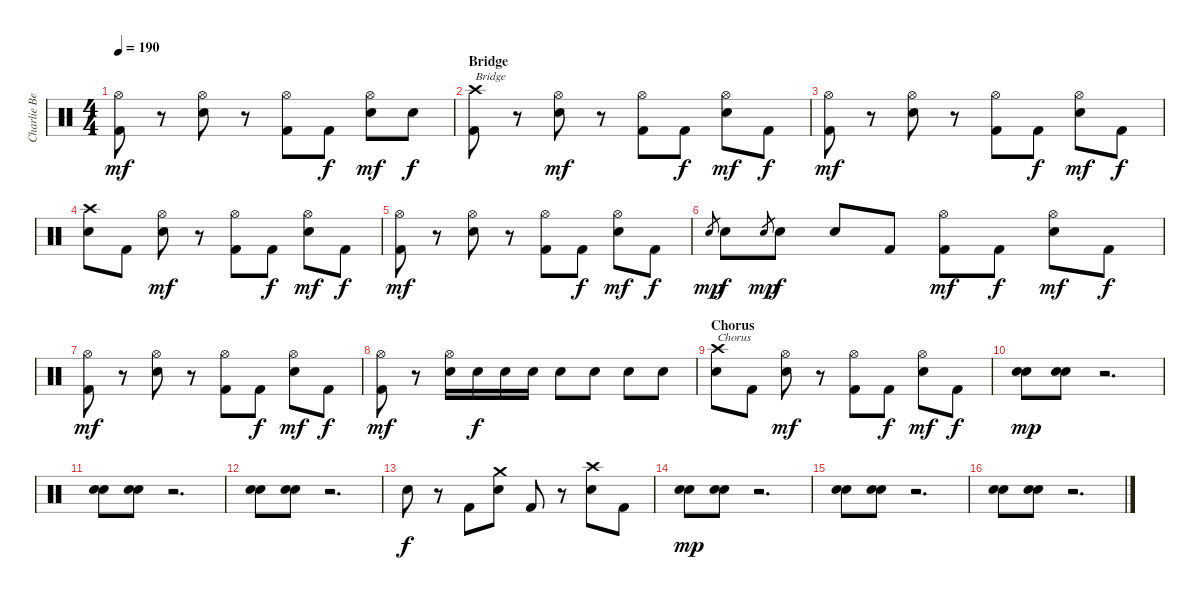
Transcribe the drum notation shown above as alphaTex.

\track ("Charlie Benante" "Charlie Be") {instrument percussion}
\staff {score}
\articulation defaults
\ts (4 4)
\tempo 190
\clef neutral
\ks c
("Hi-Hat (open)" "Kick (hit) 2").8{dy mf} r.8 ("Hi-Hat (open)" "Electric Snare (hit)").8 r.8 ("Hi-Hat (open)" "Kick (hit) 2").8 "Kick (hit) 2".8{dy f} ("Hi-Hat (open)" "Electric Snare (hit)").8{dy mf} "Snare (hit) 2".8{dy f} |
\section ("" "Bridge")
("Crash high (hit)" "Kick (hit) 2").8{txt "Bridge"} r.8 ("Hi-Hat (open)" "Electric Snare (hit)").8{dy mf} r.8 ("Hi-Hat (open)" "Kick (hit) 2").8 "Kick (hit) 2".8{dy f} ("Hi-Hat (open)" "Electric Snare (hit)").8{dy mf} "Kick (hit) 2".8{dy f} |
("Hi-Hat (open)" "Kick (hit) 2").8{dy mf} r.8 ("Hi-Hat (open)" "Electric Snare (hit)").8 r.8 ("Hi-Hat (open)" "Kick (hit) 2").8 "Kick (hit) 2".8{dy f} ("Hi-Hat (open)" "Electric Snare (hit)").8{dy mf} "Kick (hit) 2".8{dy f} |
("Crash high (hit)" "Electric Snare (hit)").8 "Kick (hit) 2".8 ("Hi-Hat (open)" "Electric Snare (hit)").8{dy mf} r.8 ("Hi-Hat (open)" "Kick (hit) 2").8 "Kick (hit) 2".8{dy f} ("Hi-Hat (open)" "Electric Snare (hit)").8{dy mf} "Kick (hit) 2".8{dy f} |
("Hi-Hat (open)" "Kick (hit) 2").8{dy mf} r.8 ("Hi-Hat (open)" "Electric Snare (hit)").8 r.8 ("Hi-Hat (open)" "Kick (hit) 2").8 "Kick (hit) 2".8{dy f} ("Hi-Hat (open)" "Electric Snare (hit)").8{dy mf} "Kick (hit) 2".8{dy f} |
"Snare (hit) 2".8{gr dy mp} "Electric Snare (hit)".8{dy f} "Snare (hit) 2".8{gr dy mp} "Electric Snare (hit)".8{dy f} "Electric Snare (hit)".8 "Kick (hit) 2".8 ("Hi-Hat (open)" "Kick (hit) 2").8{dy mf} "Kick (hit) 2".8{dy f} ("Hi-Hat (open)" "Electric Snare (hit)").8{dy mf} "Kick (hit) 2".8{dy f} |
("Hi-Hat (open)" "Kick (hit) 2").8{dy mf} r.8 ("Hi-Hat (open)" "Electric Snare (hit)").8 r.8 ("Hi-Hat (open)" "Kick (hit) 2").8 "Kick (hit) 2".8{dy f} ("Hi-Hat (open)" "Electric Snare (hit)").8{dy mf} "Kick (hit) 2".8{dy f} |
("Hi-Hat (open)" "Kick (hit) 2").8{dy mf} r.8 ("Hi-Hat (open)" "Electric Snare (hit)").16 "Electric Snare (hit)".16{dy f} "Electric Snare (hit)".16 "Electric Snare (hit)".16 "Electric Snare (hit)".8 "Electric Snare (hit)".8 "Electric Snare (hit)".8 "Electric Snare (hit)".8 |
\section ("" "Chorus")
("Crash high (hit)" "Electric Snare (hit)").8{txt "Chorus"} "Kick (hit) 2".8 ("Hi-Hat (open)" "Electric Snare (hit)").8{dy mf} r.8 ("Hi-Hat (open)" "Kick (hit) 2").8 "Kick (hit) 2".8{dy f} ("Hi-Hat (open)" "Electric Snare (hit)").8{dy mf} "Kick (hit) 2".8{dy f} |
("Snare (hit) 2" "Electric Snare (hit)").8{dy mp} ("Snare (hit) 2" "Electric Snare (hit)").8 r.2{d} |
("Snare (hit) 2" "Electric Snare (hit)").8 ("Snare (hit) 2" "Electric Snare (hit)").8 r.2{d} |
("Snare (hit) 2" "Electric Snare (hit)").8 ("Snare (hit) 2" "Electric Snare (hit)").8 r.2{d} |
"Electric Snare (hit)".8{dy f} r.8 "Kick (hit) 2".8 ("Crash medium (hit)" "Electric Snare (hit)").8 "Kick (hit) 2".8 r.8 ("Crash high (hit)" "Electric Snare (hit)").8 "Kick (hit) 2".8 |
("Snare (hit) 2" "Electric Snare (hit)").8{dy mp} ("Snare (hit) 2" "Electric Snare (hit)").8 r.2{d} |
("Snare (hit) 2" "Electric Snare (hit)").8 ("Snare (hit) 2" "Electric Snare (hit)").8 r.2{d} |
("Snare (hit) 2" "Electric Snare (hit)").8 ("Snare (hit) 2" "Electric Snare (hit)").8 r.2{d}
